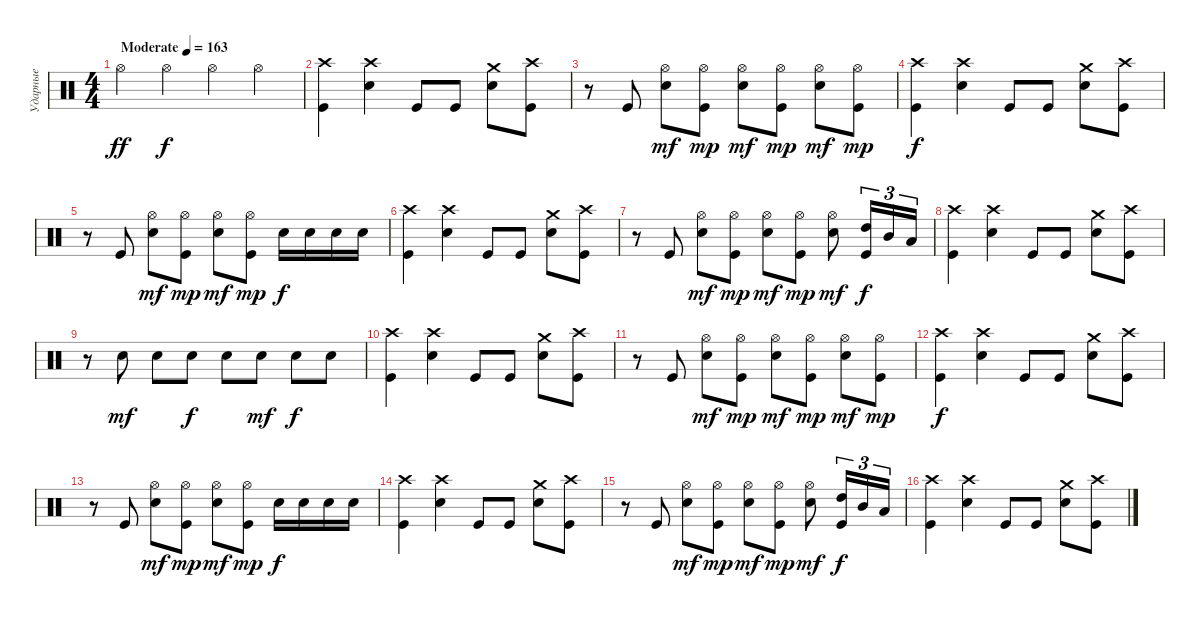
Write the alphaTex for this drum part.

\track ("Ударные" "Ударные") {instrument percussion}
\staff
\articulation defaults
\ts (4 4)
\tempo (163 "Moderate")
\clef neutral
\ks c "Hi-Hat (open)".4{dy ff} "Hi-Hat (open)".4{dy f} "Hi-Hat (open)".4 "Hi-Hat (open)".4
|
("Crash high (hit)" "Kick (hit)").4 ("Crash high (hit)" "Snare (hit) 2").4 "Kick (hit)".8 "Kick (hit)".8 ("Crash medium (hit)" "Snare (hit) 2").8 ("Crash high (hit)" "Kick (hit)").8 |
r.8 "Kick (hit)".8 ("Hi-Hat (open)" "Snare (hit) 2").8{dy mf} ("Hi-Hat (open)" "Kick (hit)").8{dy mp} ("Hi-Hat (open)" "Snare (hit) 2").8{dy mf} ("Hi-Hat (open)" "Kick (hit)").8{dy mp} ("Hi-Hat (open)" "Snare (hit) 2").8{dy mf} ("Hi-Hat (open)" "Kick (hit)").8{dy mp} |
("Crash high (hit)" "Kick (hit)").4{dy f} ("Crash high (hit)" "Snare (hit) 2").4 "Kick (hit)".8 "Kick (hit)".8 ("Crash medium (hit)" "Snare (hit) 2").8 ("Crash high (hit)" "Kick (hit)").8 |
r.8 "Kick (hit)".8 ("Hi-Hat (open)" "Snare (hit) 2").8{dy mf} ("Hi-Hat (open)" "Kick (hit)").8{dy mp} ("Hi-Hat (open)" "Snare (hit) 2").8{dy mf} ("Hi-Hat (open)" "Kick (hit)").8{dy mp} "Snare (hit) 2".16{dy f} "Snare (hit) 2".16 "Snare (hit) 2".16 "Snare (hit) 2".16 |
("Crash high (hit)" "Kick (hit)").4 ("Crash high (hit)" "Snare (hit) 2").4 "Kick (hit)".8 "Kick (hit)".8 ("Crash medium (hit)" "Snare (hit) 2").8 ("Crash high (hit)" "Kick (hit)").8 |
r.8 "Kick (hit)".8 ("Hi-Hat (open)" "Snare (hit) 2").8{dy mf} ("Hi-Hat (open)" "Kick (hit)").8{dy mp} ("Hi-Hat (open)" "Snare (hit) 2").8{dy mf} ("Hi-Hat (open)" "Kick (hit)").8{dy mp} ("Hi-Hat (open)" "Snare (hit) 2").8{dy mf} ("High Tom (hit)" "Kick (hit)").16{tu (3 2) dy f} "Mid Tom (hit)".16{tu (3 2)} "Low Tom (hit)".16{tu (3 2)} |
("Crash high (hit)" "Kick (hit)").4 ("Crash high (hit)" "Snare (hit) 2").4 "Kick (hit)".8 "Kick (hit)".8 ("Crash medium (hit)" "Snare (hit) 2").8 ("Crash high (hit)" "Kick (hit)").8 |
r.8 "Snare (hit) 2".8{dy mf} "Snare (hit) 2".8 "Snare (hit) 2".8{dy f} "Snare (hit) 2".8 "Snare (hit) 2".8{dy mf} "Snare (hit) 2".8{dy f} "Snare (hit) 2".8 |
("Crash high (hit)" "Kick (hit)").4 ("Crash high (hit)" "Snare (hit) 2").4 "Kick (hit)".8 "Kick (hit)".8 ("Crash medium (hit)" "Snare (hit) 2").8 ("Crash high (hit)" "Kick (hit)").8 |
r.8 "Kick (hit)".8 ("Hi-Hat (open)" "Snare (hit) 2").8{dy mf} ("Hi-Hat (open)" "Kick (hit)").8{dy mp} ("Hi-Hat (open)" "Snare (hit) 2").8{dy mf} ("Hi-Hat (open)" "Kick (hit)").8{dy mp} ("Hi-Hat (open)" "Snare (hit) 2").8{dy mf} ("Hi-Hat (open)" "Kick (hit)").8{dy mp} |
("Crash high (hit)" "Kick (hit)").4{dy f} ("Crash high (hit)" "Snare (hit) 2").4 "Kick (hit)".8 "Kick (hit)".8 ("Crash medium (hit)" "Snare (hit) 2").8 ("Crash high (hit)" "Kick (hit)").8 |
r.8 "Kick (hit)".8 ("Hi-Hat (open)" "Snare (hit) 2").8{dy mf} ("Hi-Hat (open)" "Kick (hit)").8{dy mp} ("Hi-Hat (open)" "Snare (hit) 2").8{dy mf} ("Hi-Hat (open)" "Kick (hit)").8{dy mp} "Snare (hit) 2".16{dy f} "Snare (hit) 2".16 "Snare (hit) 2".16 "Snare (hit) 2".16 |
("Crash high (hit)" "Kick (hit)").4 ("Crash high (hit)" "Snare (hit) 2").4 "Kick (hit)".8 "Kick (hit)".8 ("Crash medium (hit)" "Snare (hit) 2").8 ("Crash high (hit)" "Kick (hit)").8 |
r.8 "Kick (hit)".8 ("Hi-Hat (open)" "Snare (hit) 2").8{dy mf} ("Hi-Hat (open)" "Kick (hit)").8{dy mp} ("Hi-Hat (open)" "Snare (hit) 2").8{dy mf} ("Hi-Hat (open)" "Kick (hit)").8{dy mp} ("Hi-Hat (open)" "Snare (hit) 2").8{dy mf} ("High Tom (hit)" "Kick (hit)").16{tu (3 2) dy f} "Mid Tom (hit)".16{tu (3 2)} "Low Tom (hit)".16{tu (3 2)} |
("Crash high (hit)" "Kick (hit)").4 ("Crash high (hit)" "Snare (hit) 2").4 "Kick (hit)".8 "Kick (hit)".8 ("Crash medium (hit)" "Snare (hit) 2").8 ("Crash high (hit)" "Kick (hit)").8
